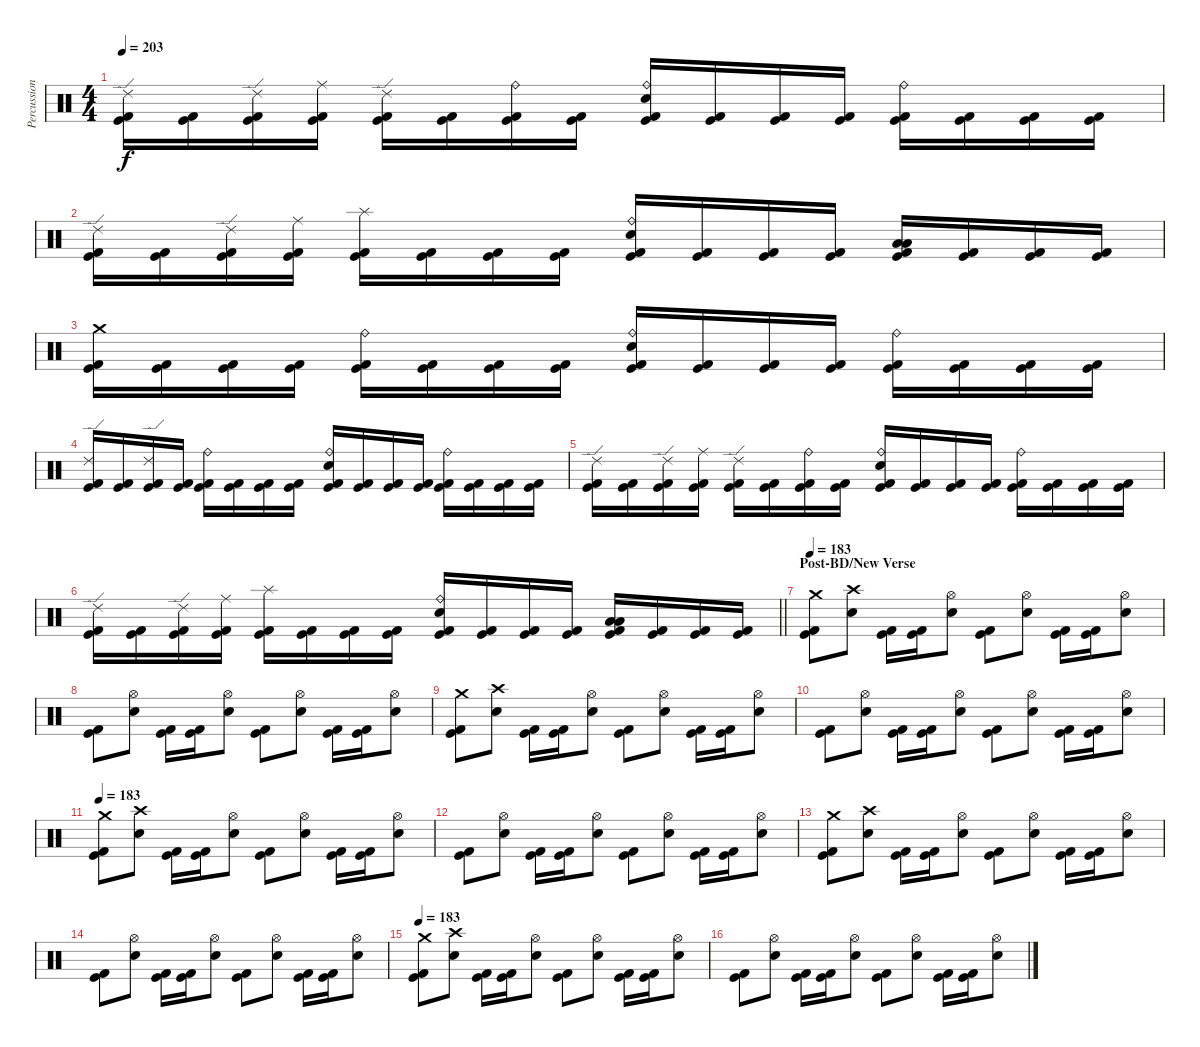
\track ("Percussion" "Percussion") {instrument percussion}
\staff {score}
\articulation defaults
\ts (4 4)
\tempo 203
\clef neutral
\ks c
("Ride (edge) 2" "Kick (hit)" "Kick (hit) 2").16{dy f} ("Kick (hit)" "Kick (hit) 2").16 ("Ride (edge) 2" "Kick (hit)" "Kick (hit) 2").16 ("Ride (middle)" "Kick (hit)" "Kick (hit) 2").16 ("Ride (edge) 2" "Kick (hit)" "Kick (hit) 2").16 ("Kick (hit)" "Kick (hit) 2").16 ("Ride (bell)" "Kick (hit)" "Kick (hit) 2").16 ("Kick (hit)" "Kick (hit) 2").16 ("Ride (bell)" "Electric Snare (hit)" "Kick (hit)" "Kick (hit) 2").16 ("Kick (hit)" "Kick (hit) 2").16 ("Kick (hit)" "Kick (hit) 2").16 ("Kick (hit)" "Kick (hit) 2").16 ("Ride (bell)" "Kick (hit)" "Kick (hit) 2").16 ("Kick (hit)" "Kick (hit) 2").16 ("Kick (hit)" "Kick (hit) 2").16 ("Kick (hit)" "Kick (hit) 2").16 |
("Ride (edge) 2" "Kick (hit)" "Kick (hit) 2").16 ("Kick (hit)" "Kick (hit) 2").16 ("Ride (edge) 2" "Kick (hit)" "Kick (hit) 2").16 ("Ride (middle)" "Kick (hit)" "Kick (hit) 2").16 ("Splash (hit)" "Kick (hit)" "Kick (hit) 2").16 ("Kick (hit)" "Kick (hit) 2").16 ("Kick (hit)" "Kick (hit) 2").16 ("Kick (hit)" "Kick (hit) 2").16 ("Ride (bell)" "Electric Snare (hit)" "Kick (hit)" "Kick (hit) 2").16 ("Kick (hit)" "Kick (hit) 2").16 ("Kick (hit)" "Kick (hit) 2").16 ("Kick (hit)" "Kick (hit) 2").16 ("Low Tom (hit)" "Low Floor Tom (hit)" "Kick (hit)" "Kick (hit) 2").16 ("Kick (hit)" "Kick (hit) 2").16 ("Kick (hit)" "Kick (hit) 2").16 ("Kick (hit)" "Kick (hit) 2").16 |
("Crash medium (hit)" "Kick (hit)" "Kick (hit) 2").16 ("Kick (hit)" "Kick (hit) 2").16 ("Kick (hit)" "Kick (hit) 2").16 ("Kick (hit)" "Kick (hit) 2").16 ("Ride (bell)" "Kick (hit)" "Kick (hit) 2").16 ("Kick (hit)" "Kick (hit) 2").16 ("Kick (hit)" "Kick (hit) 2").16 ("Kick (hit)" "Kick (hit) 2").16 ("Ride (bell)" "Electric Snare (hit)" "Kick (hit)" "Kick (hit) 2").16 ("Kick (hit)" "Kick (hit) 2").16 ("Kick (hit)" "Kick (hit) 2").16 ("Kick (hit)" "Kick (hit) 2").16 ("Ride (bell)" "Kick (hit)" "Kick (hit) 2").16 ("Kick (hit)" "Kick (hit) 2").16 ("Kick (hit)" "Kick (hit) 2").16 ("Kick (hit)" "Kick (hit) 2").16 |
("Ride (edge) 2" "Kick (hit)" "Kick (hit) 2").16 ("Kick (hit)" "Kick (hit) 2").16 ("Ride (edge) 2" "Kick (hit)" "Kick (hit) 2").16 ("Kick (hit)" "Kick (hit) 2").16 ("Ride (bell)" "Kick (hit)" "Kick (hit) 2").16 ("Kick (hit)" "Kick (hit) 2").16 ("Kick (hit)" "Kick (hit) 2").16 ("Kick (hit)" "Kick (hit) 2").16 ("Ride (bell)" "Electric Snare (hit)" "Kick (hit)" "Kick (hit) 2").16 ("Kick (hit)" "Kick (hit) 2").16 ("Kick (hit)" "Kick (hit) 2").16 ("Kick (hit)" "Kick (hit) 2").16 ("Ride (bell)" "Kick (hit)" "Kick (hit) 2").16 ("Kick (hit)" "Kick (hit) 2").16 ("Kick (hit)" "Kick (hit) 2").16 ("Kick (hit)" "Kick (hit) 2").16 |
("Ride (edge) 2" "Kick (hit)" "Kick (hit) 2").16 ("Kick (hit)" "Kick (hit) 2").16 ("Ride (edge) 2" "Kick (hit)" "Kick (hit) 2").16 ("Ride (middle)" "Kick (hit)" "Kick (hit) 2").16 ("Ride (edge) 2" "Kick (hit)" "Kick (hit) 2").16 ("Kick (hit)" "Kick (hit) 2").16 ("Ride (bell)" "Kick (hit)" "Kick (hit) 2").16 ("Kick (hit)" "Kick (hit) 2").16 ("Ride (bell)" "Electric Snare (hit)" "Kick (hit)" "Kick (hit) 2").16 ("Kick (hit)" "Kick (hit) 2").16 ("Kick (hit)" "Kick (hit) 2").16 ("Kick (hit)" "Kick (hit) 2").16 ("Ride (bell)" "Kick (hit)" "Kick (hit) 2").16 ("Kick (hit)" "Kick (hit) 2").16 ("Kick (hit)" "Kick (hit) 2").16 ("Kick (hit)" "Kick (hit) 2").16 |
\barLineRight lightlight
("Ride (edge) 2" "Kick (hit)" "Kick (hit) 2").16 ("Kick (hit)" "Kick (hit) 2").16 ("Ride (edge) 2" "Kick (hit)" "Kick (hit) 2").16 ("Ride (middle)" "Kick (hit)" "Kick (hit) 2").16 ("Splash (hit)" "Kick (hit)" "Kick (hit) 2").16 ("Kick (hit)" "Kick (hit) 2").16 ("Kick (hit)" "Kick (hit) 2").16 ("Kick (hit)" "Kick (hit) 2").16 ("Ride (bell)" "Electric Snare (hit)" "Kick (hit)" "Kick (hit) 2").16 ("Kick (hit)" "Kick (hit) 2").16 ("Kick (hit)" "Kick (hit) 2").16 ("Kick (hit)" "Kick (hit) 2").16 ("Low Tom (hit)" "Low Floor Tom (hit)" "Kick (hit)" "Kick (hit) 2").16 ("Kick (hit)" "Kick (hit) 2").16 ("Kick (hit)" "Kick (hit) 2").16 ("Kick (hit)" "Kick (hit) 2").16 |
\section ("" "Post-BD/New Verse")
\tempo 183
("Crash medium (hit)" "Kick (hit)" "Kick (hit) 2").8 ("Crash high (hit)" "Electric Snare (hit)").8 ("Kick (hit)" "Kick (hit) 2").16 ("Kick (hit)" "Kick (hit) 2").16 ("Hi-Hat (open)" "Electric Snare (hit)").8 ("Kick (hit)" "Kick (hit) 2").8 ("Hi-Hat (open)" "Electric Snare (hit)").8 ("Kick (hit)" "Kick (hit) 2").16 ("Kick (hit)" "Kick (hit) 2").16 ("Hi-Hat (open)" "Electric Snare (hit)").8 |
("Kick (hit)" "Kick (hit) 2").8 ("Hi-Hat (open)" "Electric Snare (hit)").8 ("Kick (hit)" "Kick (hit) 2").16 ("Kick (hit)" "Kick (hit) 2").16 ("Hi-Hat (open)" "Electric Snare (hit)").8 ("Kick (hit)" "Kick (hit) 2").8 ("Hi-Hat (open)" "Electric Snare (hit)").8 ("Kick (hit)" "Kick (hit) 2").16 ("Kick (hit)" "Kick (hit) 2").16 ("Hi-Hat (open)" "Electric Snare (hit)").8 |
("Crash medium (hit)" "Kick (hit)" "Kick (hit) 2").8 ("Crash high (hit)" "Electric Snare (hit)").8 ("Kick (hit)" "Kick (hit) 2").16 ("Kick (hit)" "Kick (hit) 2").16 ("Hi-Hat (open)" "Electric Snare (hit)").8 ("Kick (hit)" "Kick (hit) 2").8 ("Hi-Hat (open)" "Electric Snare (hit)").8 ("Kick (hit)" "Kick (hit) 2").16 ("Kick (hit)" "Kick (hit) 2").16 ("Hi-Hat (open)" "Electric Snare (hit)").8 |
("Kick (hit)" "Kick (hit) 2").8 ("Hi-Hat (open)" "Electric Snare (hit)").8 ("Kick (hit)" "Kick (hit) 2").16 ("Kick (hit)" "Kick (hit) 2").16 ("Hi-Hat (open)" "Electric Snare (hit)").8 ("Kick (hit)" "Kick (hit) 2").8 ("Hi-Hat (open)" "Electric Snare (hit)").8 ("Kick (hit)" "Kick (hit) 2").16 ("Kick (hit)" "Kick (hit) 2").16 ("Hi-Hat (open)" "Electric Snare (hit)").8 |
\tempo 183
("Crash medium (hit)" "Kick (hit)" "Kick (hit) 2").8 ("Crash high (hit)" "Electric Snare (hit)").8 ("Kick (hit)" "Kick (hit) 2").16 ("Kick (hit)" "Kick (hit) 2").16 ("Hi-Hat (open)" "Electric Snare (hit)").8 ("Kick (hit)" "Kick (hit) 2").8 ("Hi-Hat (open)" "Electric Snare (hit)").8 ("Kick (hit)" "Kick (hit) 2").16 ("Kick (hit)" "Kick (hit) 2").16 ("Hi-Hat (open)" "Electric Snare (hit)").8 |
("Kick (hit)" "Kick (hit) 2").8 ("Hi-Hat (open)" "Electric Snare (hit)").8 ("Kick (hit)" "Kick (hit) 2").16 ("Kick (hit)" "Kick (hit) 2").16 ("Hi-Hat (open)" "Electric Snare (hit)").8 ("Kick (hit)" "Kick (hit) 2").8 ("Hi-Hat (open)" "Electric Snare (hit)").8 ("Kick (hit)" "Kick (hit) 2").16 ("Kick (hit)" "Kick (hit) 2").16 ("Hi-Hat (open)" "Electric Snare (hit)").8 |
("Crash medium (hit)" "Kick (hit)" "Kick (hit) 2").8 ("Crash high (hit)" "Electric Snare (hit)").8 ("Kick (hit)" "Kick (hit) 2").16 ("Kick (hit)" "Kick (hit) 2").16 ("Hi-Hat (open)" "Electric Snare (hit)").8 ("Kick (hit)" "Kick (hit) 2").8 ("Hi-Hat (open)" "Electric Snare (hit)").8 ("Kick (hit)" "Kick (hit) 2").16 ("Kick (hit)" "Kick (hit) 2").16 ("Hi-Hat (open)" "Electric Snare (hit)").8 |
("Kick (hit)" "Kick (hit) 2").8 ("Hi-Hat (open)" "Electric Snare (hit)").8 ("Kick (hit)" "Kick (hit) 2").16 ("Kick (hit)" "Kick (hit) 2").16 ("Hi-Hat (open)" "Electric Snare (hit)").8 ("Kick (hit)" "Kick (hit) 2").8 ("Hi-Hat (open)" "Electric Snare (hit)").8 ("Kick (hit)" "Kick (hit) 2").16 ("Kick (hit)" "Kick (hit) 2").16 ("Hi-Hat (open)" "Electric Snare (hit)").8 |
\tempo 183
("Crash medium (hit)" "Kick (hit)" "Kick (hit) 2").8 ("Crash high (hit)" "Electric Snare (hit)").8 ("Kick (hit)" "Kick (hit) 2").16 ("Kick (hit)" "Kick (hit) 2").16 ("Hi-Hat (open)" "Electric Snare (hit)").8 ("Kick (hit)" "Kick (hit) 2").8 ("Hi-Hat (open)" "Electric Snare (hit)").8 ("Kick (hit)" "Kick (hit) 2").16 ("Kick (hit)" "Kick (hit) 2").16 ("Hi-Hat (open)" "Electric Snare (hit)").8 |
("Kick (hit)" "Kick (hit) 2").8 ("Hi-Hat (open)" "Electric Snare (hit)").8 ("Kick (hit)" "Kick (hit) 2").16 ("Kick (hit)" "Kick (hit) 2").16 ("Hi-Hat (open)" "Electric Snare (hit)").8 ("Kick (hit)" "Kick (hit) 2").8 ("Hi-Hat (open)" "Electric Snare (hit)").8 ("Kick (hit)" "Kick (hit) 2").16 ("Kick (hit)" "Kick (hit) 2").16 ("Hi-Hat (open)" "Electric Snare (hit)").8
